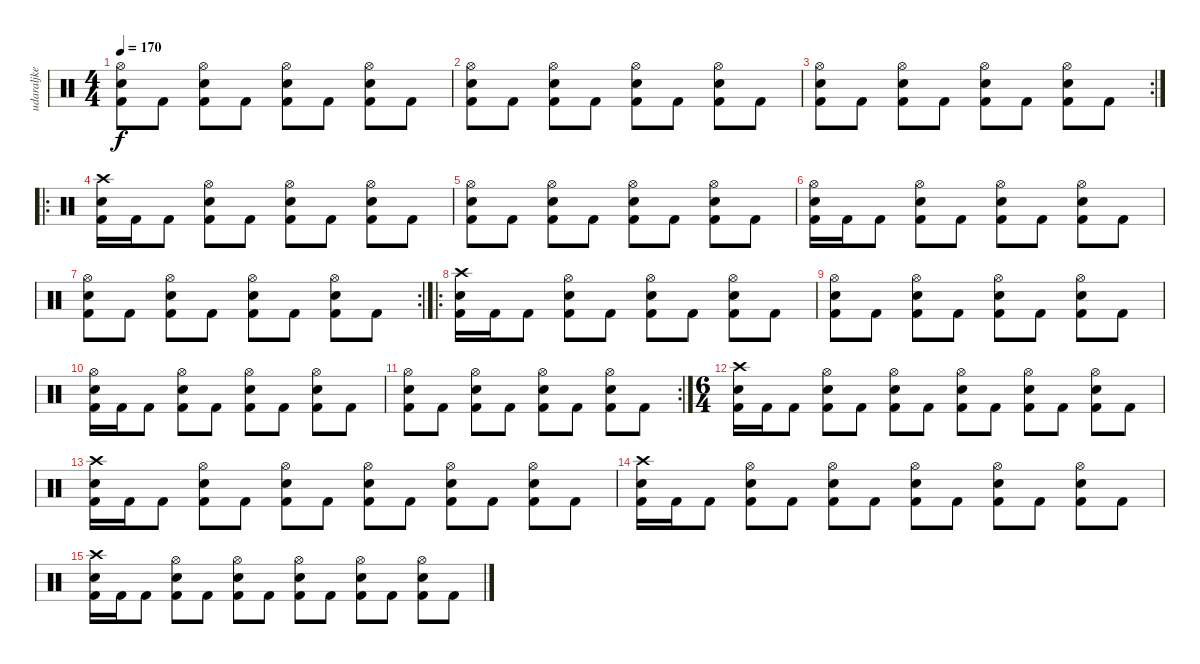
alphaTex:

\track ("udaraljke" "udaraljke") {instrument percussion}
\staff {score}
\articulation defaults
\ts (4 4)
\tempo 170
\clef neutral
\ks c
("Hi-Hat (open)" "Snare (hit) 2" "Kick (hit) 2").8{dy f} "Kick (hit) 2".8 ("Hi-Hat (open)" "Snare (hit) 2" "Kick (hit) 2").8 "Kick (hit) 2".8 ("Hi-Hat (open)" "Snare (hit) 2" "Kick (hit) 2").8 "Kick (hit) 2".8 ("Hi-Hat (open)" "Snare (hit) 2" "Kick (hit) 2").8 "Kick (hit) 2".8 |
("Hi-Hat (open)" "Snare (hit) 2" "Kick (hit) 2").8 "Kick (hit) 2".8 ("Hi-Hat (open)" "Snare (hit) 2" "Kick (hit) 2").8 "Kick (hit) 2".8 ("Hi-Hat (open)" "Snare (hit) 2" "Kick (hit) 2").8 "Kick (hit) 2".8 ("Hi-Hat (open)" "Snare (hit) 2" "Kick (hit) 2").8 "Kick (hit) 2".8 |
\rc 2
("Hi-Hat (open)" "Snare (hit) 2" "Kick (hit) 2").8 "Kick (hit) 2".8 ("Hi-Hat (open)" "Snare (hit) 2" "Kick (hit) 2").8 "Kick (hit) 2".8 ("Hi-Hat (open)" "Snare (hit) 2" "Kick (hit) 2").8 "Kick (hit) 2".8 ("Hi-Hat (open)" "Snare (hit) 2" "Kick (hit) 2").8 "Kick (hit) 2".8 |
\ro
("Crash high (hit)" "Snare (hit) 2" "Kick (hit) 2").16 "Kick (hit) 2".16 "Kick (hit) 2".8 ("Hi-Hat (open)" "Snare (hit) 2" "Kick (hit) 2").8 "Kick (hit) 2".8 ("Hi-Hat (open)" "Snare (hit) 2" "Kick (hit) 2").8 "Kick (hit) 2".8 ("Hi-Hat (open)" "Snare (hit) 2" "Kick (hit) 2").8 "Kick (hit) 2".8 |
("Hi-Hat (open)" "Snare (hit) 2" "Kick (hit) 2").8 "Kick (hit) 2".8 ("Hi-Hat (open)" "Snare (hit) 2" "Kick (hit) 2").8 "Kick (hit) 2".8 ("Hi-Hat (open)" "Snare (hit) 2" "Kick (hit) 2").8 "Kick (hit) 2".8 ("Hi-Hat (open)" "Snare (hit) 2" "Kick (hit) 2").8 "Kick (hit) 2".8 |
("Hi-Hat (open)" "Snare (hit) 2" "Kick (hit) 2").16 "Kick (hit) 2".16 "Kick (hit) 2".8 ("Hi-Hat (open)" "Snare (hit) 2" "Kick (hit) 2").8 "Kick (hit) 2".8 ("Hi-Hat (open)" "Snare (hit) 2" "Kick (hit) 2").8 "Kick (hit) 2".8 ("Hi-Hat (open)" "Snare (hit) 2" "Kick (hit) 2").8 "Kick (hit) 2".8 |
\rc 2
("Hi-Hat (open)" "Snare (hit) 2" "Kick (hit) 2").8 "Kick (hit) 2".8 ("Hi-Hat (open)" "Snare (hit) 2" "Kick (hit) 2").8 "Kick (hit) 2".8 ("Hi-Hat (open)" "Snare (hit) 2" "Kick (hit) 2").8 "Kick (hit) 2".8 ("Hi-Hat (open)" "Snare (hit) 2" "Kick (hit) 2").8 "Kick (hit) 2".8 |
\ro
("Crash high (hit)" "Snare (hit) 2" "Kick (hit) 2").16 "Kick (hit) 2".16 "Kick (hit) 2".8 ("Hi-Hat (open)" "Snare (hit) 2" "Kick (hit) 2").8 "Kick (hit) 2".8 ("Hi-Hat (open)" "Snare (hit) 2" "Kick (hit) 2").8 "Kick (hit) 2".8 ("Hi-Hat (open)" "Snare (hit) 2" "Kick (hit) 2").8 "Kick (hit) 2".8 |
("Hi-Hat (open)" "Snare (hit) 2" "Kick (hit) 2").8 "Kick (hit) 2".8 ("Hi-Hat (open)" "Snare (hit) 2" "Kick (hit) 2").8 "Kick (hit) 2".8 ("Hi-Hat (open)" "Snare (hit) 2" "Kick (hit) 2").8 "Kick (hit) 2".8 ("Hi-Hat (open)" "Snare (hit) 2" "Kick (hit) 2").8 "Kick (hit) 2".8 |
("Hi-Hat (open)" "Snare (hit) 2" "Kick (hit) 2").16 "Kick (hit) 2".16 "Kick (hit) 2".8 ("Hi-Hat (open)" "Snare (hit) 2" "Kick (hit) 2").8 "Kick (hit) 2".8 ("Hi-Hat (open)" "Snare (hit) 2" "Kick (hit) 2").8 "Kick (hit) 2".8 ("Hi-Hat (open)" "Snare (hit) 2" "Kick (hit) 2").8 "Kick (hit) 2".8 |
\rc 2
("Hi-Hat (open)" "Snare (hit) 2" "Kick (hit) 2").8 "Kick (hit) 2".8 ("Hi-Hat (open)" "Snare (hit) 2" "Kick (hit) 2").8 "Kick (hit) 2".8 ("Hi-Hat (open)" "Snare (hit) 2" "Kick (hit) 2").8 "Kick (hit) 2".8 ("Hi-Hat (open)" "Snare (hit) 2" "Kick (hit) 2").8 "Kick (hit) 2".8 |
\ts (6 4)
("Crash high (hit)" "Snare (hit) 2" "Kick (hit) 2").16 "Kick (hit) 2".16 "Kick (hit) 2".8 ("Hi-Hat (open)" "Snare (hit) 2" "Kick (hit) 2").8 "Kick (hit) 2".8 ("Hi-Hat (open)" "Snare (hit) 2" "Kick (hit) 2").8 "Kick (hit) 2".8 ("Hi-Hat (open)" "Snare (hit) 2" "Kick (hit) 2").8 "Kick (hit) 2".8 ("Hi-Hat (open)" "Snare (hit) 2" "Kick (hit) 2").8 "Kick (hit) 2".8 ("Hi-Hat (open)" "Snare (hit) 2" "Kick (hit) 2").8 "Kick (hit) 2".8 |
("Crash high (hit)" "Snare (hit) 2" "Kick (hit) 2").16 "Kick (hit) 2".16 "Kick (hit) 2".8 ("Hi-Hat (open)" "Snare (hit) 2" "Kick (hit) 2").8 "Kick (hit) 2".8 ("Hi-Hat (open)" "Snare (hit) 2" "Kick (hit) 2").8 "Kick (hit) 2".8 ("Hi-Hat (open)" "Snare (hit) 2" "Kick (hit) 2").8 "Kick (hit) 2".8 ("Hi-Hat (open)" "Snare (hit) 2" "Kick (hit) 2").8 "Kick (hit) 2".8 ("Hi-Hat (open)" "Snare (hit) 2" "Kick (hit) 2").8 "Kick (hit) 2".8 |
("Crash high (hit)" "Snare (hit) 2" "Kick (hit) 2").16 "Kick (hit) 2".16 "Kick (hit) 2".8 ("Hi-Hat (open)" "Snare (hit) 2" "Kick (hit) 2").8 "Kick (hit) 2".8 ("Hi-Hat (open)" "Snare (hit) 2" "Kick (hit) 2").8 "Kick (hit) 2".8 ("Hi-Hat (open)" "Snare (hit) 2" "Kick (hit) 2").8 "Kick (hit) 2".8 ("Hi-Hat (open)" "Snare (hit) 2" "Kick (hit) 2").8 "Kick (hit) 2".8 ("Hi-Hat (open)" "Snare (hit) 2" "Kick (hit) 2").8 "Kick (hit) 2".8 |
("Crash high (hit)" "Snare (hit) 2" "Kick (hit) 2").16 "Kick (hit) 2".16 "Kick (hit) 2".8 ("Hi-Hat (open)" "Snare (hit) 2" "Kick (hit) 2").8 "Kick (hit) 2".8 ("Hi-Hat (open)" "Snare (hit) 2" "Kick (hit) 2").8 "Kick (hit) 2".8 ("Hi-Hat (open)" "Snare (hit) 2" "Kick (hit) 2").8 "Kick (hit) 2".8 ("Hi-Hat (open)" "Snare (hit) 2" "Kick (hit) 2").8 "Kick (hit) 2".8 ("Hi-Hat (open)" "Snare (hit) 2" "Kick (hit) 2").8 "Kick (hit) 2".8
